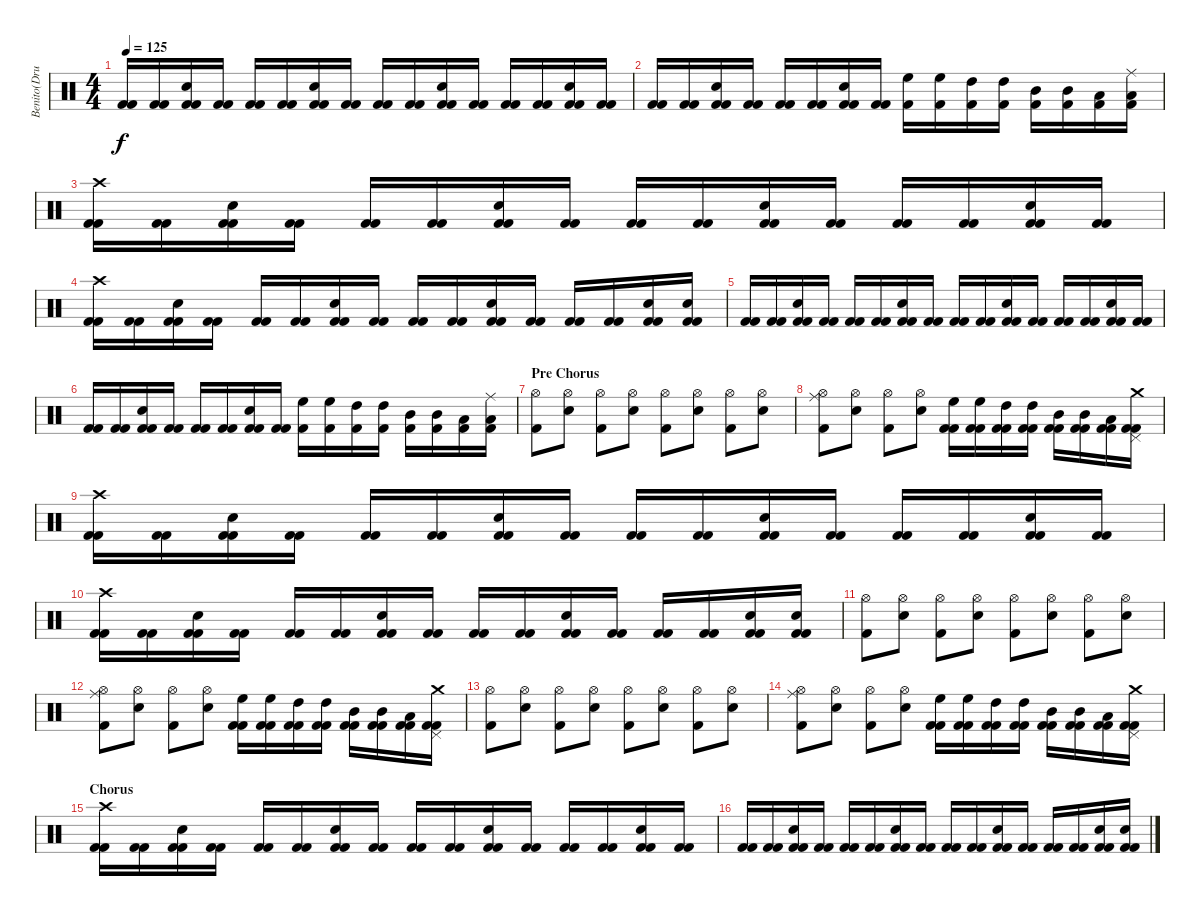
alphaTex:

\track ("Benito(Drums)" "Benito(Dru") {instrument percussion}
\staff {score}
\articulation defaults
\ts (4 4)
\tempo 125
\clef neutral
\ks c
("Kick (hit) 2" "Kick (hit) 2").16{dy f} ("Kick (hit) 2" "Kick (hit) 2").16 ("Kick (hit) 2" "Kick (hit) 2" "Electric Snare (hit)").16 ("Kick (hit) 2" "Kick (hit) 2").16 ("Kick (hit) 2" "Kick (hit) 2").16 ("Kick (hit) 2" "Kick (hit) 2").16 ("Kick (hit) 2" "Kick (hit) 2" "Electric Snare (hit)").16 ("Kick (hit) 2" "Kick (hit) 2").16 ("Kick (hit) 2" "Kick (hit) 2").16 ("Kick (hit) 2" "Kick (hit) 2").16 ("Kick (hit) 2" "Kick (hit) 2" "Electric Snare (hit)").16 ("Kick (hit) 2" "Kick (hit) 2").16 ("Kick (hit) 2" "Kick (hit) 2").16 ("Kick (hit) 2" "Kick (hit) 2").16 ("Kick (hit) 2" "Kick (hit) 2" "Electric Snare (hit)").16 ("Kick (hit) 2" "Kick (hit) 2").16 |
("Kick (hit) 2" "Kick (hit) 2").16 ("Kick (hit) 2" "Kick (hit) 2").16 ("Kick (hit) 2" "Kick (hit) 2" "Electric Snare (hit)").16 ("Kick (hit) 2" "Kick (hit) 2").16 ("Kick (hit) 2" "Kick (hit) 2").16 ("Kick (hit) 2" "Kick (hit) 2").16 ("Kick (hit) 2" "Kick (hit) 2" "Electric Snare (hit)").16 ("Kick (hit) 2" "Kick (hit) 2").16 ("Kick (hit) 2" "High Floor Tom (hit)").16 ("Kick (hit) 2" "High Floor Tom (hit)").16 ("Kick (hit) 2" "High Tom (hit)").16 ("Kick (hit) 2" "High Tom (hit)").16 ("Kick (hit) 2" "Mid Tom (hit)").16 ("Kick (hit) 2" "Mid Tom (hit)").16 ("Kick (hit) 2" "Low Tom (hit)").16 ("Kick (hit) 2" "Low Tom (hit)" "Ride (middle)").16 |
("Kick (hit) 2" "Kick (hit) 2" "Crash high (hit)").16 ("Kick (hit) 2" "Kick (hit) 2").16 ("Kick (hit) 2" "Kick (hit) 2" "Electric Snare (hit)").16 ("Kick (hit) 2" "Kick (hit) 2").16 ("Kick (hit) 2" "Kick (hit) 2").16 ("Kick (hit) 2" "Kick (hit) 2").16 ("Kick (hit) 2" "Kick (hit) 2" "Electric Snare (hit)").16 ("Kick (hit) 2" "Kick (hit) 2").16 ("Kick (hit) 2" "Kick (hit) 2").16 ("Kick (hit) 2" "Kick (hit) 2").16 ("Kick (hit) 2" "Kick (hit) 2" "Electric Snare (hit)").16 ("Kick (hit) 2" "Kick (hit) 2").16 ("Kick (hit) 2" "Kick (hit) 2").16 ("Kick (hit) 2" "Kick (hit) 2").16 ("Kick (hit) 2" "Kick (hit) 2" "Electric Snare (hit)").16 ("Kick (hit) 2" "Kick (hit) 2").16 |
("Kick (hit) 2" "Kick (hit) 2" "Crash high (hit)").16 ("Kick (hit) 2" "Kick (hit) 2").16 ("Kick (hit) 2" "Kick (hit) 2" "Electric Snare (hit)").16 ("Kick (hit) 2" "Kick (hit) 2").16 ("Kick (hit) 2" "Kick (hit) 2").16 ("Kick (hit) 2" "Kick (hit) 2").16 ("Kick (hit) 2" "Kick (hit) 2" "Electric Snare (hit)").16 ("Kick (hit) 2" "Kick (hit) 2").16 ("Kick (hit) 2" "Kick (hit) 2").16 ("Kick (hit) 2" "Kick (hit) 2").16 ("Kick (hit) 2" "Kick (hit) 2" "Electric Snare (hit)").16 ("Kick (hit) 2" "Kick (hit) 2").16 ("Kick (hit) 2" "Kick (hit) 2").16 ("Kick (hit) 2" "Kick (hit) 2").16 ("Kick (hit) 2" "Kick (hit) 2" "Electric Snare (hit)").16 ("Kick (hit) 2" "Kick (hit) 2" "Electric Snare (hit)").16 |
("Kick (hit) 2" "Kick (hit) 2").16 ("Kick (hit) 2" "Kick (hit) 2").16 ("Kick (hit) 2" "Kick (hit) 2" "Electric Snare (hit)").16 ("Kick (hit) 2" "Kick (hit) 2").16 ("Kick (hit) 2" "Kick (hit) 2").16 ("Kick (hit) 2" "Kick (hit) 2").16 ("Kick (hit) 2" "Kick (hit) 2" "Electric Snare (hit)").16 ("Kick (hit) 2" "Kick (hit) 2").16 ("Kick (hit) 2" "Kick (hit) 2").16 ("Kick (hit) 2" "Kick (hit) 2").16 ("Kick (hit) 2" "Kick (hit) 2" "Electric Snare (hit)").16 ("Kick (hit) 2" "Kick (hit) 2").16 ("Kick (hit) 2" "Kick (hit) 2").16 ("Kick (hit) 2" "Kick (hit) 2").16 ("Kick (hit) 2" "Kick (hit) 2" "Electric Snare (hit)").16 ("Kick (hit) 2" "Kick (hit) 2").16 |
("Kick (hit) 2" "Kick (hit) 2").16 ("Kick (hit) 2" "Kick (hit) 2").16 ("Kick (hit) 2" "Kick (hit) 2" "Electric Snare (hit)").16 ("Kick (hit) 2" "Kick (hit) 2").16 ("Kick (hit) 2" "Kick (hit) 2").16 ("Kick (hit) 2" "Kick (hit) 2").16 ("Kick (hit) 2" "Kick (hit) 2" "Electric Snare (hit)").16 ("Kick (hit) 2" "Kick (hit) 2").16 ("Kick (hit) 2" "High Floor Tom (hit)").16 ("Kick (hit) 2" "High Floor Tom (hit)").16 ("Kick (hit) 2" "High Tom (hit)").16 ("Kick (hit) 2" "High Tom (hit)").16 ("Kick (hit) 2" "Mid Tom (hit)").16 ("Kick (hit) 2" "Mid Tom (hit)").16 ("Kick (hit) 2" "Low Tom (hit)").16 ("Kick (hit) 2" "Low Tom (hit)" "Ride (middle)").16 |
\section ("" "Pre Chorus")
("Kick (hit) 2" "Hi-Hat (open)").8 ("Hi-Hat (open)" "Electric Snare (hit)").8 ("Kick (hit) 2" "Hi-Hat (open)").8 ("Hi-Hat (open)" "Electric Snare (hit)").8 ("Kick (hit) 2" "Hi-Hat (open)").8 ("Hi-Hat (open)" "Electric Snare (hit)").8 ("Kick (hit) 2" "Hi-Hat (open)").8 ("Hi-Hat (open)" "Electric Snare (hit)").8 |
("Kick (hit) 2" "Hi-Hat (open)" "Ride (middle)").8 ("Hi-Hat (open)" "Snare (hit) 2").8 ("Kick (hit) 2" "Hi-Hat (open)").8 ("Hi-Hat (open)" "Snare (hit) 2").8 ("Kick (hit) 2" "Kick (hit) 2" "High Floor Tom (hit)").16 ("Kick (hit) 2" "Kick (hit) 2" "High Floor Tom (hit)").16 ("Kick (hit) 2" "Kick (hit) 2" "High Tom (hit)").16 ("Kick (hit) 2" "Kick (hit) 2" "High Tom (hit)").16 ("Kick (hit) 2" "Kick (hit) 2" "Mid Tom (hit)").16 ("Kick (hit) 2" "Kick (hit) 2" "Mid Tom (hit)").16 ("Kick (hit) 2" "Kick (hit) 2" "Low Tom (hit)").16 ("Kick (hit) 2" "Kick (hit) 2" "Pedal Hi-Hat (hit)" "Crash medium (hit)").16 |
("Kick (hit) 2" "Kick (hit) 2" "Crash high (hit)").16 ("Kick (hit) 2" "Kick (hit) 2").16 ("Kick (hit) 2" "Kick (hit) 2" "Electric Snare (hit)").16 ("Kick (hit) 2" "Kick (hit) 2").16 ("Kick (hit) 2" "Kick (hit) 2").16 ("Kick (hit) 2" "Kick (hit) 2").16 ("Kick (hit) 2" "Kick (hit) 2" "Electric Snare (hit)").16 ("Kick (hit) 2" "Kick (hit) 2").16 ("Kick (hit) 2" "Kick (hit) 2").16 ("Kick (hit) 2" "Kick (hit) 2").16 ("Kick (hit) 2" "Kick (hit) 2" "Electric Snare (hit)").16 ("Kick (hit) 2" "Kick (hit) 2").16 ("Kick (hit) 2" "Kick (hit) 2").16 ("Kick (hit) 2" "Kick (hit) 2").16 ("Kick (hit) 2" "Kick (hit) 2" "Electric Snare (hit)").16 ("Kick (hit) 2" "Kick (hit) 2").16 |
("Kick (hit) 2" "Kick (hit) 2" "Crash high (hit)").16 ("Kick (hit) 2" "Kick (hit) 2").16 ("Kick (hit) 2" "Kick (hit) 2" "Electric Snare (hit)").16 ("Kick (hit) 2" "Kick (hit) 2").16 ("Kick (hit) 2" "Kick (hit) 2").16 ("Kick (hit) 2" "Kick (hit) 2").16 ("Kick (hit) 2" "Kick (hit) 2" "Electric Snare (hit)").16 ("Kick (hit) 2" "Kick (hit) 2").16 ("Kick (hit) 2" "Kick (hit) 2").16 ("Kick (hit) 2" "Kick (hit) 2").16 ("Kick (hit) 2" "Kick (hit) 2" "Electric Snare (hit)").16 ("Kick (hit) 2" "Kick (hit) 2").16 ("Kick (hit) 2" "Kick (hit) 2").16 ("Kick (hit) 2" "Kick (hit) 2").16 ("Kick (hit) 2" "Kick (hit) 2" "Electric Snare (hit)").16 ("Kick (hit) 2" "Kick (hit) 2" "Electric Snare (hit)").16 |
("Kick (hit) 2" "Hi-Hat (open)").8 ("Hi-Hat (open)" "Electric Snare (hit)").8 ("Kick (hit) 2" "Hi-Hat (open)").8 ("Hi-Hat (open)" "Electric Snare (hit)").8 ("Kick (hit) 2" "Hi-Hat (open)").8 ("Hi-Hat (open)" "Electric Snare (hit)").8 ("Kick (hit) 2" "Hi-Hat (open)").8 ("Hi-Hat (open)" "Electric Snare (hit)").8 |
("Kick (hit) 2" "Hi-Hat (open)" "Ride (middle)").8 ("Hi-Hat (open)" "Snare (hit) 2").8 ("Kick (hit) 2" "Hi-Hat (open)").8 ("Hi-Hat (open)" "Snare (hit) 2").8 ("Kick (hit) 2" "Kick (hit) 2" "High Floor Tom (hit)").16 ("Kick (hit) 2" "Kick (hit) 2" "High Floor Tom (hit)").16 ("Kick (hit) 2" "Kick (hit) 2" "High Tom (hit)").16 ("Kick (hit) 2" "Kick (hit) 2" "High Tom (hit)").16 ("Kick (hit) 2" "Kick (hit) 2" "Mid Tom (hit)").16 ("Kick (hit) 2" "Kick (hit) 2" "Mid Tom (hit)").16 ("Kick (hit) 2" "Kick (hit) 2" "Low Tom (hit)").16 ("Kick (hit) 2" "Kick (hit) 2" "Pedal Hi-Hat (hit)" "Crash medium (hit)").16 |
("Kick (hit) 2" "Hi-Hat (open)").8 ("Hi-Hat (open)" "Electric Snare (hit)").8 ("Kick (hit) 2" "Hi-Hat (open)").8 ("Hi-Hat (open)" "Electric Snare (hit)").8 ("Kick (hit) 2" "Hi-Hat (open)").8 ("Hi-Hat (open)" "Electric Snare (hit)").8 ("Kick (hit) 2" "Hi-Hat (open)").8 ("Hi-Hat (open)" "Electric Snare (hit)").8 |
("Kick (hit) 2" "Hi-Hat (open)" "Ride (middle)").8 ("Hi-Hat (open)" "Snare (hit) 2").8 ("Kick (hit) 2" "Hi-Hat (open)").8 ("Hi-Hat (open)" "Snare (hit) 2").8 ("Kick (hit) 2" "Kick (hit) 2" "High Floor Tom (hit)").16 ("Kick (hit) 2" "Kick (hit) 2" "High Floor Tom (hit)").16 ("Kick (hit) 2" "Kick (hit) 2" "High Tom (hit)").16 ("Kick (hit) 2" "Kick (hit) 2" "High Tom (hit)").16 ("Kick (hit) 2" "Kick (hit) 2" "Mid Tom (hit)").16 ("Kick (hit) 2" "Kick (hit) 2" "Mid Tom (hit)").16 ("Kick (hit) 2" "Kick (hit) 2" "Low Tom (hit)").16 ("Kick (hit) 2" "Kick (hit) 2" "Pedal Hi-Hat (hit)" "Crash medium (hit)").16 |
\section ("" "Chorus")
("Kick (hit) 2" "Kick (hit) 2" "Crash high (hit)").16 ("Kick (hit) 2" "Kick (hit) 2").16 ("Kick (hit) 2" "Kick (hit) 2" "Electric Snare (hit)").16 ("Kick (hit) 2" "Kick (hit) 2").16 ("Kick (hit) 2" "Kick (hit) 2").16 ("Kick (hit) 2" "Kick (hit) 2").16 ("Kick (hit) 2" "Kick (hit) 2" "Electric Snare (hit)").16 ("Kick (hit) 2" "Kick (hit) 2").16 ("Kick (hit) 2" "Kick (hit) 2").16 ("Kick (hit) 2" "Kick (hit) 2").16 ("Kick (hit) 2" "Kick (hit) 2" "Electric Snare (hit)").16 ("Kick (hit) 2" "Kick (hit) 2").16 ("Kick (hit) 2" "Kick (hit) 2").16 ("Kick (hit) 2" "Kick (hit) 2").16 ("Kick (hit) 2" "Kick (hit) 2" "Electric Snare (hit)").16 ("Kick (hit) 2" "Kick (hit) 2").16 |
("Kick (hit) 2" "Kick (hit) 2").16 ("Kick (hit) 2" "Kick (hit) 2").16 ("Kick (hit) 2" "Kick (hit) 2" "Electric Snare (hit)").16 ("Kick (hit) 2" "Kick (hit) 2").16 ("Kick (hit) 2" "Kick (hit) 2").16 ("Kick (hit) 2" "Kick (hit) 2").16 ("Kick (hit) 2" "Kick (hit) 2" "Electric Snare (hit)").16 ("Kick (hit) 2" "Kick (hit) 2").16 ("Kick (hit) 2" "Kick (hit) 2").16 ("Kick (hit) 2" "Kick (hit) 2").16 ("Kick (hit) 2" "Kick (hit) 2" "Electric Snare (hit)").16 ("Kick (hit) 2" "Kick (hit) 2").16 ("Kick (hit) 2" "Kick (hit) 2").16 ("Kick (hit) 2" "Kick (hit) 2").16 ("Kick (hit) 2" "Kick (hit) 2" "Electric Snare (hit)").16 ("Kick (hit) 2" "Kick (hit) 2" "Electric Snare (hit)").16
